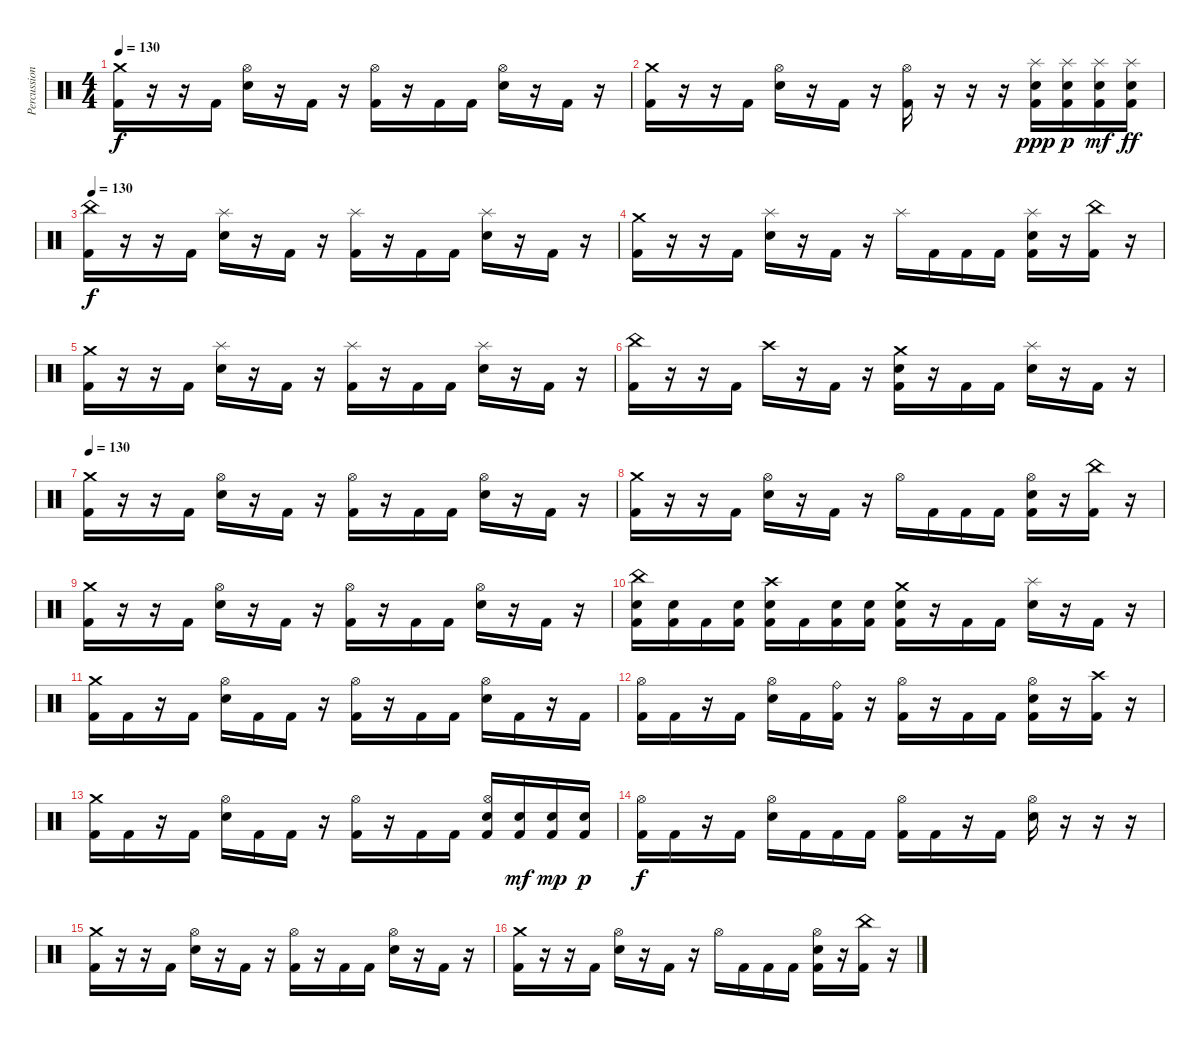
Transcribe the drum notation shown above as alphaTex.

\track ("Percussion" "Percussion") {instrument percussion}
\staff {score}
\articulation defaults
\ts (4 4)
\tempo 130
\clef neutral
\ks c
("Crash medium (hit)" "Kick (hit) 2").16{dy f} r.16 r.16 "Kick (hit) 2".16 ("Hi-Hat (open)" "Electric Snare (hit)").16 r.16 "Kick (hit) 2".16 r.16 ("Hi-Hat (open)" "Kick (hit) 2").16 r.16 "Kick (hit) 2".16 "Kick (hit) 2".16 ("Hi-Hat (open)" "Electric Snare (hit)").16 r.16 "Kick (hit) 2".16 r.16 |
("Crash medium (hit)" "Kick (hit) 2").16 r.16 r.16 "Kick (hit) 2".16 ("Hi-Hat (open)" "Electric Snare (hit)").16 r.16 "Kick (hit) 2".16 r.16 ("Hi-Hat (open)" "Kick (hit) 2").16 r.16 r.16 r.16 ("Splash (hit)" "Electric Snare (hit)" "Kick (hit) 2").16{dy ppp} ("Splash (hit)" "Electric Snare (hit)" "Kick (hit) 2").16{dy p} ("Splash (hit)" "Electric Snare (hit)" "Kick (hit) 2").16{dy mf} ("Splash (hit)" "Electric Snare (hit)" "Kick (hit) 2").16{dy ff} |
\tempo 130
("China (hit)" "Kick (hit) 2").16{dy f} r.16 r.16 "Kick (hit) 2".16 ("Splash (hit)" "Electric Snare (hit)").16 r.16 "Kick (hit) 2".16 r.16 ("Splash (hit)" "Kick (hit) 2").16 r.16 "Kick (hit) 2".16 "Kick (hit) 2".16 ("Splash (hit)" "Electric Snare (hit)").16 r.16 "Kick (hit) 2".16 r.16 |
("Crash medium (hit)" "Kick (hit) 2").16 r.16 r.16 "Kick (hit) 2".16 ("Splash (hit)" "Electric Snare (hit)").16 r.16 "Kick (hit) 2".16 r.16 "Splash (hit)".16 "Kick (hit) 2".16 "Kick (hit) 2".16 "Kick (hit) 2".16 ("Splash (hit)" "Electric Snare (hit)" "Kick (hit) 2").16 r.16 ("China (hit)" "Kick (hit) 2").16 r.16 |
("Crash medium (hit)" "Kick (hit) 2").16 r.16 r.16 "Kick (hit) 2".16 ("Splash (hit)" "Electric Snare (hit)").16 r.16 "Kick (hit) 2".16 r.16 ("Splash (hit)" "Kick (hit) 2").16 r.16 "Kick (hit) 2".16 "Kick (hit) 2".16 ("Splash (hit)" "Electric Snare (hit)").16 r.16 "Kick (hit) 2".16 r.16 |
("China (hit)" "Kick (hit) 2").16 r.16 r.16 "Kick (hit) 2".16 "Crash high (hit)".16 r.16 "Kick (hit) 2".16 r.16 ("Crash medium (hit)" "Electric Snare (hit)" "Kick (hit) 2").16 r.16 "Kick (hit) 2".16 "Kick (hit) 2".16 ("Splash (hit)" "Electric Snare (hit)").16 r.16 "Kick (hit) 2".16 r.16 |
\tempo 130
("Crash medium (hit)" "Kick (hit) 2").16 r.16 r.16 "Kick (hit) 2".16 ("Hi-Hat (open)" "Electric Snare (hit)").16 r.16 "Kick (hit) 2".16 r.16 ("Hi-Hat (open)" "Kick (hit) 2").16 r.16 "Kick (hit) 2".16 "Kick (hit) 2".16 ("Hi-Hat (open)" "Electric Snare (hit)").16 r.16 "Kick (hit) 2".16 r.16 |
("Crash medium (hit)" "Kick (hit) 2").16 r.16 r.16 "Kick (hit) 2".16 ("Hi-Hat (open)" "Electric Snare (hit)").16 r.16 "Kick (hit) 2".16 r.16 "Hi-Hat (open)".16 "Kick (hit) 2".16 "Kick (hit) 2".16 "Kick (hit) 2".16 ("Hi-Hat (open)" "Electric Snare (hit)" "Kick (hit) 2").16 r.16 ("China (hit)" "Kick (hit) 2").16 r.16 |
("Crash medium (hit)" "Kick (hit) 2").16 r.16 r.16 "Kick (hit) 2".16 ("Hi-Hat (open)" "Electric Snare (hit)").16 r.16 "Kick (hit) 2".16 r.16 ("Hi-Hat (open)" "Kick (hit) 2").16 r.16 "Kick (hit) 2".16 "Kick (hit) 2".16 ("Hi-Hat (open)" "Electric Snare (hit)").16 r.16 "Kick (hit) 2".16 r.16 |
("China (hit)" "Electric Snare (hit)" "Kick (hit) 2").16 ("Electric Snare (hit)" "Kick (hit) 2").16 "Kick (hit) 2".16 ("Electric Snare (hit)" "Kick (hit) 2").16 ("Crash high (hit)" "Electric Snare (hit)" "Kick (hit) 2").16 "Kick (hit) 2".16 ("Electric Snare (hit)" "Kick (hit) 2").16 ("Electric Snare (hit)" "Kick (hit) 2").16 ("Crash medium (hit)" "Electric Snare (hit)" "Kick (hit) 2").16 r.16 "Kick (hit) 2".16 "Kick (hit) 2".16 ("Splash (hit)" "Electric Snare (hit)").16 r.16 "Kick (hit) 2".16 r.16 |
("Crash medium (hit)" "Kick (hit) 2").16 "Kick (hit) 2".16 r.16 "Kick (hit) 2".16 ("Hi-Hat (open)" "Electric Snare (hit)").16 "Kick (hit) 2".16 "Kick (hit) 2".16 r.16 ("Hi-Hat (open)" "Kick (hit) 2").16 r.16 "Kick (hit) 2".16 "Kick (hit) 2".16 ("Hi-Hat (open)" "Electric Snare (hit)").16 "Kick (hit) 2".16 r.16 "Kick (hit) 2".16 |
("Hi-Hat (open)" "Kick (hit) 2").16 "Kick (hit) 2".16 r.16 "Kick (hit) 2".16 ("Hi-Hat (open)" "Electric Snare (hit)").16 "Kick (hit) 2".16 ("Ride (bell)" "Kick (hit) 2").16 r.16 ("Hi-Hat (open)" "Kick (hit) 2").16 r.16 "Kick (hit) 2".16 "Kick (hit) 2".16 ("Hi-Hat (open)" "Electric Snare (hit)" "Kick (hit) 2").16 r.16 ("Crash high (hit)" "Kick (hit) 2").16 r.16 |
("Crash medium (hit)" "Kick (hit) 2").16 "Kick (hit) 2".16 r.16 "Kick (hit) 2".16 ("Hi-Hat (open)" "Electric Snare (hit)").16 "Kick (hit) 2".16 "Kick (hit) 2".16 r.16 ("Hi-Hat (open)" "Kick (hit) 2").16 r.16 "Kick (hit) 2".16 "Kick (hit) 2".16 ("Hi-Hat (open)" "Electric Snare (hit)" "Kick (hit) 2").16 ("Electric Snare (hit)" "Kick (hit) 2").16{dy mf} ("Electric Snare (hit)" "Kick (hit) 2").16{dy mp} ("Electric Snare (hit)" "Kick (hit) 2").16{dy p} |
("Hi-Hat (open)" "Kick (hit) 2").16{dy f} "Kick (hit) 2".16 r.16 "Kick (hit) 2".16 ("Hi-Hat (open)" "Electric Snare (hit)").16 "Kick (hit) 2".16 "Kick (hit) 2".16 "Kick (hit) 2".16 ("Hi-Hat (open)" "Kick (hit) 2").16 "Kick (hit) 2".16 r.16 "Kick (hit) 2".16 ("Hi-Hat (open)" "Electric Snare (hit)").16 r.16 r.16 r.16 |
("Crash medium (hit)" "Kick (hit) 2").16 r.16 r.16 "Kick (hit) 2".16 ("Hi-Hat (open)" "Electric Snare (hit)").16 r.16 "Kick (hit) 2".16 r.16 ("Hi-Hat (open)" "Kick (hit) 2").16 r.16 "Kick (hit) 2".16 "Kick (hit) 2".16 ("Hi-Hat (open)" "Electric Snare (hit)").16 r.16 "Kick (hit) 2".16 r.16 |
("Crash medium (hit)" "Kick (hit) 2").16 r.16 r.16 "Kick (hit) 2".16 ("Hi-Hat (open)" "Electric Snare (hit)").16 r.16 "Kick (hit) 2".16 r.16 "Hi-Hat (open)".16 "Kick (hit) 2".16 "Kick (hit) 2".16 "Kick (hit) 2".16 ("Hi-Hat (open)" "Electric Snare (hit)" "Kick (hit) 2").16 r.16 ("China (hit)" "Kick (hit) 2").16 r.16
